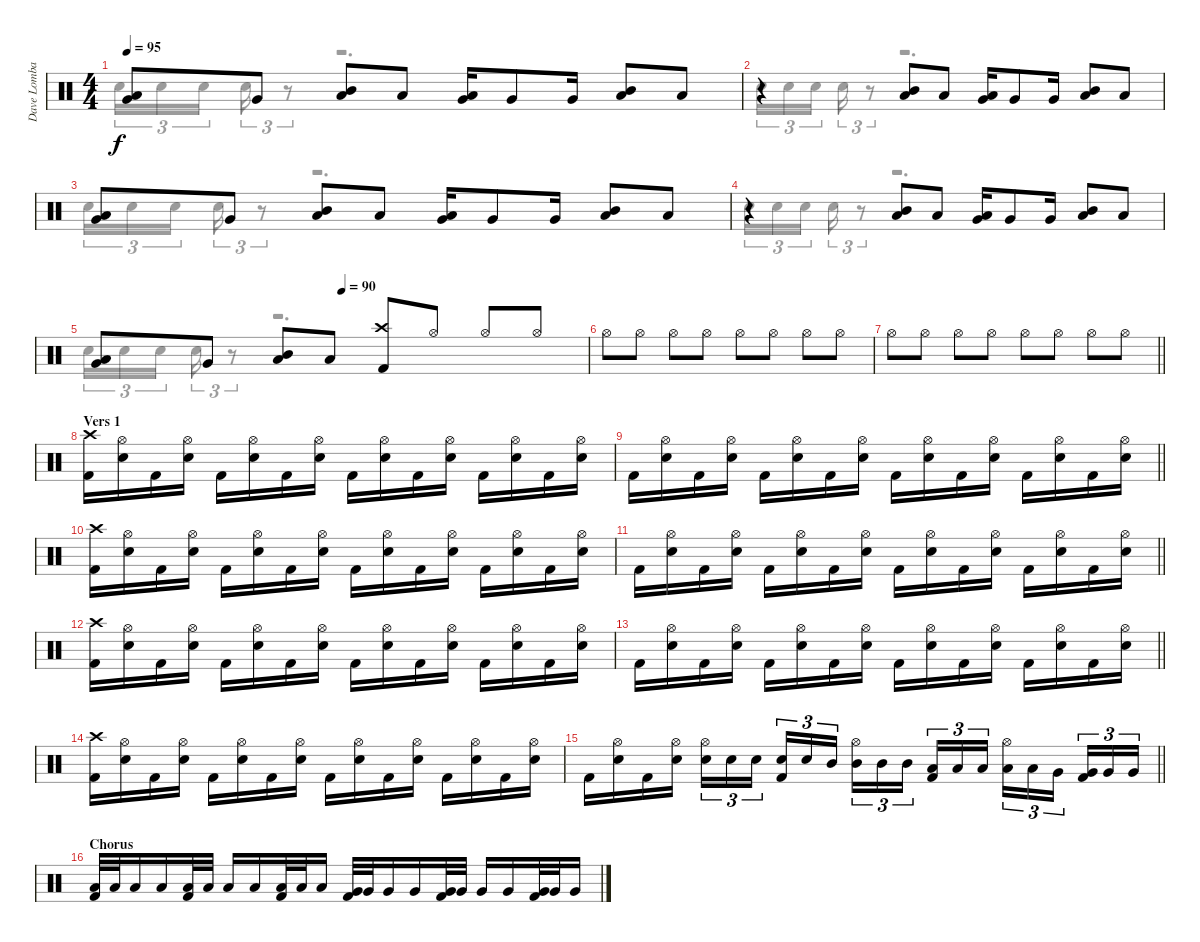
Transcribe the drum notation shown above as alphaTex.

\track ("Dave Lombardo" "Dave Lomba") {instrument percussion}
\staff {score}
\articulation defaults
\voice
\ts (4 4)
\tempo 95
\clef neutral
\ks c
("Low Tom (hit)" "Very Low Tom (hit)").8{dy f} "Very Low Tom (hit)".8 ("Mid Tom (hit)" "Low Tom (hit)").8 "Low Tom (hit)".8 ("Low Tom (hit)" "Very Low Tom (hit)").16 "Very Low Tom (hit)".8 "Very Low Tom (hit)".16 ("Mid Tom (hit)" "Low Tom (hit)").8 "Low Tom (hit)".8 |
r.4 ("Mid Tom (hit)" "Low Tom (hit)").8 "Low Tom (hit)".8 ("Low Tom (hit)" "Very Low Tom (hit)").16 "Very Low Tom (hit)".8 "Very Low Tom (hit)".16 ("Mid Tom (hit)" "Low Tom (hit)").8 "Low Tom (hit)".8 |
("Low Tom (hit)" "Very Low Tom (hit)").8 "Very Low Tom (hit)".8 ("Mid Tom (hit)" "Low Tom (hit)").8 "Low Tom (hit)".8 ("Low Tom (hit)" "Very Low Tom (hit)").16 "Very Low Tom (hit)".8 "Very Low Tom (hit)".16 ("Mid Tom (hit)" "Low Tom (hit)").8 "Low Tom (hit)".8 |
r.4 ("Mid Tom (hit)" "Low Tom (hit)").8 "Low Tom (hit)".8 ("Low Tom (hit)" "Very Low Tom (hit)").16 "Very Low Tom (hit)".8 "Very Low Tom (hit)".16 ("Mid Tom (hit)" "Low Tom (hit)").8 "Low Tom (hit)".8 |
\tempo (90 0.5)
("Low Tom (hit)" "Very Low Tom (hit)").8 "Very Low Tom (hit)".8 ("Mid Tom (hit)" "Low Tom (hit)").8 "Low Tom (hit)".8 ("Crash high (hit)" "Kick (hit) 2").8 "Hi-Hat (open)".8 "Hi-Hat (open)".8 "Hi-Hat (open)".8 |
"Hi-Hat (open)".8 "Hi-Hat (open)".8 "Hi-Hat (open)".8 "Hi-Hat (open)".8 "Hi-Hat (open)".8 "Hi-Hat (open)".8 "Hi-Hat (open)".8 "Hi-Hat (open)".8 |
\barLineRight lightlight "Hi-Hat (open)".8 "Hi-Hat (open)".8 "Hi-Hat (open)".8 "Hi-Hat (open)".8 "Hi-Hat (open)".8 "Hi-Hat (open)".8 "Hi-Hat (open)".8 "Hi-Hat (open)".8
|
\section ("" "Vers 1")
("Crash high (hit)" "Kick (hit) 2").16 ("Hi-Hat (open)" "Snare (hit) 2").16 "Kick (hit) 2".16 ("Hi-Hat (open)" "Snare (hit) 2").16 "Kick (hit) 2".16 ("Hi-Hat (open)" "Snare (hit) 2").16 "Kick (hit) 2".16 ("Hi-Hat (open)" "Snare (hit) 2").16 "Kick (hit) 2".16 ("Hi-Hat (open)" "Snare (hit) 2").16 "Kick (hit) 2".16 ("Hi-Hat (open)" "Snare (hit) 2").16 "Kick (hit) 2".16 ("Hi-Hat (open)" "Snare (hit) 2").16 "Kick (hit) 2".16 ("Hi-Hat (open)" "Snare (hit) 2").16 |
\barLineRight lightlight "Kick (hit) 2".16
("Hi-Hat (open)" "Snare (hit) 2").16 "Kick (hit) 2".16 ("Hi-Hat (open)" "Snare (hit) 2").16 "Kick (hit) 2".16 ("Hi-Hat (open)" "Snare (hit) 2").16 "Kick (hit) 2".16 ("Hi-Hat (open)" "Snare (hit) 2").16 "Kick (hit) 2".16 ("Hi-Hat (open)" "Snare (hit) 2").16 "Kick (hit) 2".16 ("Hi-Hat (open)" "Snare (hit) 2").16 "Kick (hit) 2".16 ("Hi-Hat (open)" "Snare (hit) 2").16 "Kick (hit) 2".16 ("Hi-Hat (open)" "Snare (hit) 2").16 |
("Crash high (hit)" "Kick (hit) 2").16 ("Hi-Hat (open)" "Snare (hit) 2").16 "Kick (hit) 2".16 ("Hi-Hat (open)" "Snare (hit) 2").16 "Kick (hit) 2".16 ("Hi-Hat (open)" "Snare (hit) 2").16 "Kick (hit) 2".16 ("Hi-Hat (open)" "Snare (hit) 2").16 "Kick (hit) 2".16 ("Hi-Hat (open)" "Snare (hit) 2").16 "Kick (hit) 2".16 ("Hi-Hat (open)" "Snare (hit) 2").16 "Kick (hit) 2".16 ("Hi-Hat (open)" "Snare (hit) 2").16 "Kick (hit) 2".16 ("Hi-Hat (open)" "Snare (hit) 2").16 |
\barLineRight lightlight "Kick (hit) 2".16
("Hi-Hat (open)" "Snare (hit) 2").16 "Kick (hit) 2".16 ("Hi-Hat (open)" "Snare (hit) 2").16 "Kick (hit) 2".16 ("Hi-Hat (open)" "Snare (hit) 2").16 "Kick (hit) 2".16 ("Hi-Hat (open)" "Snare (hit) 2").16 "Kick (hit) 2".16 ("Hi-Hat (open)" "Snare (hit) 2").16 "Kick (hit) 2".16 ("Hi-Hat (open)" "Snare (hit) 2").16 "Kick (hit) 2".16 ("Hi-Hat (open)" "Snare (hit) 2").16 "Kick (hit) 2".16 ("Hi-Hat (open)" "Snare (hit) 2").16 |
("Crash high (hit)" "Kick (hit) 2").16 ("Hi-Hat (open)" "Snare (hit) 2").16 "Kick (hit) 2".16 ("Hi-Hat (open)" "Snare (hit) 2").16 "Kick (hit) 2".16 ("Hi-Hat (open)" "Snare (hit) 2").16 "Kick (hit) 2".16 ("Hi-Hat (open)" "Snare (hit) 2").16 "Kick (hit) 2".16 ("Hi-Hat (open)" "Snare (hit) 2").16 "Kick (hit) 2".16 ("Hi-Hat (open)" "Snare (hit) 2").16 "Kick (hit) 2".16 ("Hi-Hat (open)" "Snare (hit) 2").16 "Kick (hit) 2".16 ("Hi-Hat (open)" "Snare (hit) 2").16 |
\barLineRight lightlight "Kick (hit) 2".16
("Hi-Hat (open)" "Snare (hit) 2").16 "Kick (hit) 2".16 ("Hi-Hat (open)" "Snare (hit) 2").16 "Kick (hit) 2".16 ("Hi-Hat (open)" "Snare (hit) 2").16 "Kick (hit) 2".16 ("Hi-Hat (open)" "Snare (hit) 2").16 "Kick (hit) 2".16 ("Hi-Hat (open)" "Snare (hit) 2").16 "Kick (hit) 2".16 ("Hi-Hat (open)" "Snare (hit) 2").16 "Kick (hit) 2".16 ("Hi-Hat (open)" "Snare (hit) 2").16 "Kick (hit) 2".16 ("Hi-Hat (open)" "Snare (hit) 2").16 |
("Crash high (hit)" "Kick (hit) 2").16 ("Hi-Hat (open)" "Snare (hit) 2").16 "Kick (hit) 2".16 ("Hi-Hat (open)" "Snare (hit) 2").16 "Kick (hit) 2".16 ("Hi-Hat (open)" "Snare (hit) 2").16 "Kick (hit) 2".16 ("Hi-Hat (open)" "Snare (hit) 2").16 "Kick (hit) 2".16 ("Hi-Hat (open)" "Snare (hit) 2").16 "Kick (hit) 2".16 ("Hi-Hat (open)" "Snare (hit) 2").16 "Kick (hit) 2".16 ("Hi-Hat (open)" "Snare (hit) 2").16 "Kick (hit) 2".16 ("Hi-Hat (open)" "Snare (hit) 2").16 |
\barLineRight lightlight "Kick (hit) 2".16
("Hi-Hat (open)" "Snare (hit) 2").16 "Kick (hit) 2".16 ("Hi-Hat (open)" "Snare (hit) 2").16 ("Hi-Hat (open)" "Snare (hit) 2").16{tu (3 2)} "Snare (hit) 2".16{tu (3 2)} "Snare (hit) 2".16{tu (3 2) beam splitsecondary} ("Snare (hit) 2" "Kick (hit) 2").16{tu (3 2)} "Snare (hit) 2".16{tu (3 2)} "Mid Tom (hit)".16{tu (3 2)} ("Hi-Hat (open)" "Mid Tom (hit)").16{tu (3 2)} "Mid Tom (hit)".16{tu (3 2)} "Mid Tom (hit)".16{tu (3 2) beam splitsecondary} ("Low Tom (hit)" "Kick (hit) 2").16{tu (3 2)} "Low Tom (hit)".16{tu (3 2)} "Low Tom (hit)".16{tu (3 2)} ("Hi-Hat (open)" "Low Tom (hit)").16{tu (3 2)} "Low Tom (hit)".16{tu (3 2)} "Very Low Tom (hit)".16{tu (3 2) beam splitsecondary} ("Very Low Tom (hit)" "Kick (hit) 2").16{tu (3 2)} "Very Low Tom (hit)".16{tu (3 2)} "Very Low Tom (hit)".16{tu (3 2)} |
\section ("" "Chorus")
("Low Tom (hit)" "Kick (hit) 2").32 "Low Tom (hit)".32 "Low Tom (hit)".16 "Low Tom (hit)".16 ("Low Tom (hit)" "Kick (hit) 2").32 "Low Tom (hit)".32 "Low Tom (hit)".16 "Low Tom (hit)".16 ("Low Tom (hit)" "Kick (hit) 2").32 "Low Tom (hit)".32 "Low Tom (hit)".16 ("Very Low Tom (hit)" "Kick (hit) 2").32 "Very Low Tom (hit)".32 "Very Low Tom (hit)".16 "Very Low Tom (hit)".16 ("Very Low Tom (hit)" "Kick (hit) 2").32 "Very Low Tom (hit)".32 "Very Low Tom (hit)".16 "Very Low Tom (hit)".16 ("Very Low Tom (hit)" "Kick (hit) 2").32 "Very Low Tom (hit)".32 "Very Low Tom (hit)".16
\voice
\clef neutral
\ottava regular
\simile none
\ks c "Snare (hit) 2".16{tu (3 2) dy f} "Snare (hit) 2".16{tu (3 2)} "Snare (hit) 2".16{tu (3 2) beam splitsecondary} "Snare (hit) 2".16{tu (3 2)}
r.8{tu (3 2)} r.2{d} |
"Snare (hit) 2".16{tu (3 2)} "Snare (hit) 2".16{tu (3 2)} "Snare (hit) 2".16{tu (3 2) beam splitsecondary} "Snare (hit) 2".16{tu (3 2)} r.8{tu (3 2)} r.2{d} |
"Snare (hit) 2".16{tu (3 2)} "Snare (hit) 2".16{tu (3 2)} "Snare (hit) 2".16{tu (3 2) beam splitsecondary} "Snare (hit) 2".16{tu (3 2)} r.8{tu (3 2)} r.2{d} |
"Snare (hit) 2".16{tu (3 2)} "Snare (hit) 2".16{tu (3 2)} "Snare (hit) 2".16{tu (3 2) beam splitsecondary} "Snare (hit) 2".16{tu (3 2)} r.8{tu (3 2)} r.2{d} |
"Snare (hit) 2".16{tu (3 2)} "Snare (hit) 2".16{tu (3 2)} "Snare (hit) 2".16{tu (3 2) beam splitsecondary} "Snare (hit) 2".16{tu (3 2)} r.8{tu (3 2)} r.2{d} |
|
\barLineRight lightlight
|
|
\barLineRight lightlight
|
|
\barLineRight lightlight
|
|
\barLineRight lightlight
|
|
\barLineRight lightlight
|
